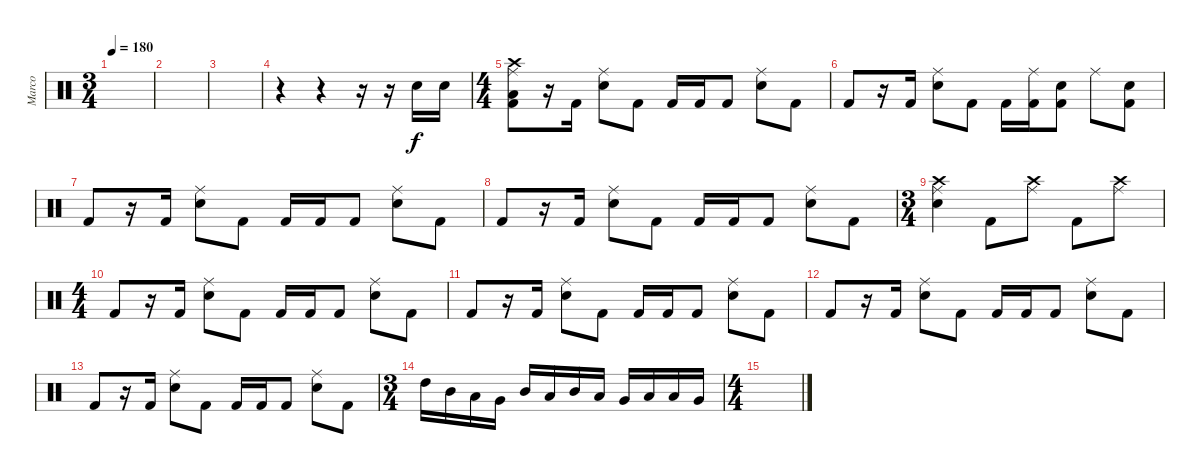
\track ("Marco" "Marco") {instrument percussion}
\staff {score}
\articulation defaults
\ts (3 4)
\tempo 180
\clef neutral
\ks c
|
|
|
r.4 r.4 r.16 r.16 "Electric Snare (hit)".16 "Electric Snare (hit)".16 |
\ts (4 4)
("Kick (hit) 2" "Low Tom (hit)" "Ride (middle)" "Crash high (hit)").8 r.16 "Kick (hit) 2".16 ("Electric Snare (hit)" "Ride (middle)").8 "Kick (hit) 2".8 "Kick (hit) 2".16 "Kick (hit) 2".16 "Kick (hit) 2".8 ("Electric Snare (hit)" "Ride (middle)").8 "Kick (hit) 2".8 |
"Kick (hit) 2".8 r.16 "Kick (hit) 2".16 ("Electric Snare (hit)" "Ride (middle)").8 "Kick (hit) 2".8 "Kick (hit) 2".16 ("Kick (hit) 2" "Ride (middle)").16 ("Kick (hit) 2" "Electric Snare (hit)").8 "Ride (middle)".8 ("Kick (hit) 2" "Electric Snare (hit)").8 |
"Kick (hit) 2".8 r.16 "Kick (hit) 2".16 ("Electric Snare (hit)" "Ride (middle)").8 "Kick (hit) 2".8 "Kick (hit) 2".16 "Kick (hit) 2".16 "Kick (hit) 2".8 ("Electric Snare (hit)" "Ride (middle)").8 "Kick (hit) 2".8 |
"Kick (hit) 2".8 r.16 "Kick (hit) 2".16 ("Electric Snare (hit)" "Ride (middle)").8 "Kick (hit) 2".8 "Kick (hit) 2".16 "Kick (hit) 2".16 "Kick (hit) 2".8 ("Electric Snare (hit)" "Ride (middle)").8 "Kick (hit) 2".8 |
\ts (3 4)
("Electric Snare (hit)" "Crash high (hit)" "Ride (middle)").4 "Kick (hit) 2".8 ("Crash high (hit)" "Ride (middle)").8 "Kick (hit) 2".8 ("Crash high (hit)" "Ride (middle)").8 |
\ts (4 4)
"Kick (hit) 2".8 r.16 "Kick (hit) 2".16 ("Electric Snare (hit)" "Ride (middle)").8 "Kick (hit) 2".8 "Kick (hit) 2".16 "Kick (hit) 2".16 "Kick (hit) 2".8 ("Electric Snare (hit)" "Ride (middle)").8 "Kick (hit) 2".8 |
"Kick (hit) 2".8 r.16 "Kick (hit) 2".16 ("Electric Snare (hit)" "Ride (middle)").8 "Kick (hit) 2".8 "Kick (hit) 2".16 "Kick (hit) 2".16 "Kick (hit) 2".8 ("Electric Snare (hit)" "Ride (middle)").8 "Kick (hit) 2".8 |
"Kick (hit) 2".8 r.16 "Kick (hit) 2".16 ("Electric Snare (hit)" "Ride (middle)").8 "Kick (hit) 2".8 "Kick (hit) 2".16 "Kick (hit) 2".16 "Kick (hit) 2".8 ("Electric Snare (hit)" "Ride (middle)").8 "Kick (hit) 2".8 |
"Kick (hit) 2".8 r.16 "Kick (hit) 2".16 ("Electric Snare (hit)" "Ride (middle)").8 "Kick (hit) 2".8 "Kick (hit) 2".16 "Kick (hit) 2".16 "Kick (hit) 2".8 ("Electric Snare (hit)" "Ride (middle)").8 "Kick (hit) 2".8 |
\ts (3 4)
"High Tom (hit)".16 "Mid Tom (hit)".16 "Low Tom (hit)".16 "Very Low Tom (hit)".16 "Mid Tom (hit)".16 "Low Tom (hit)".16 "Mid Tom (hit)".16 "Low Tom (hit)".16 "Very Low Tom (hit)".16 "Low Floor Tom (hit)".16 "Low Tom (hit)".16 "Very Low Tom (hit)".16 |
\ts (4 4)
